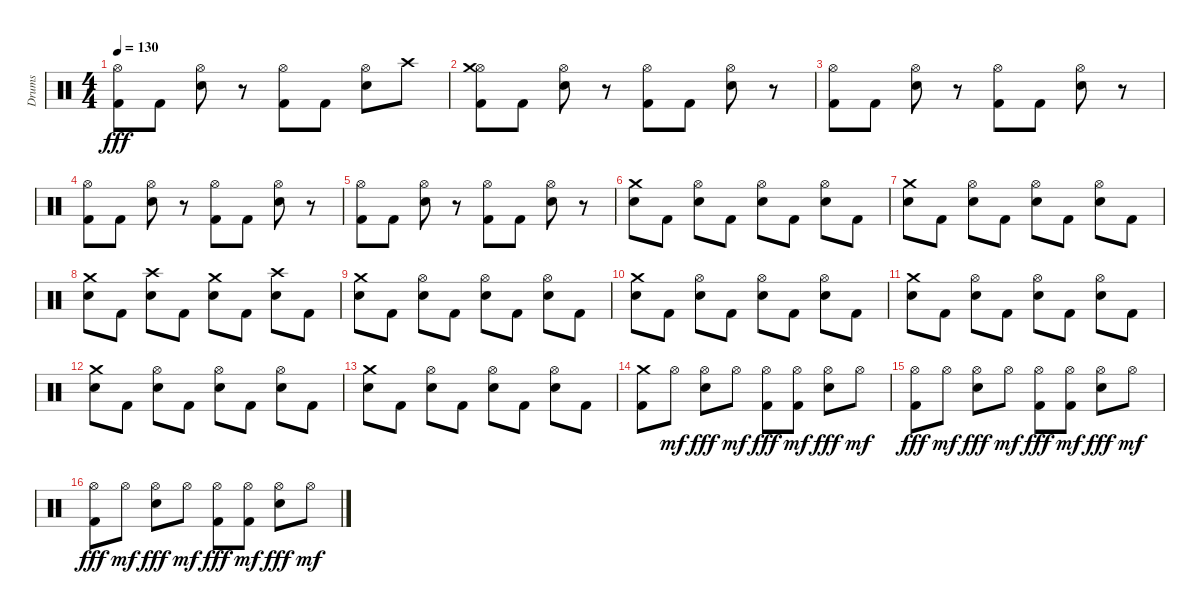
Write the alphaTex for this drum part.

\track ("Drums" "Drums") {instrument percussion}
\staff {score}
\articulation defaults
\ts (4 4)
\tempo 130
\clef neutral
\ks c
("Kick (hit) 2" "Hi-Hat (open)").8{dy fff} "Kick (hit) 2".8 ("Snare (hit) 2" "Hi-Hat (open)").8 r.8 ("Kick (hit) 2" "Hi-Hat (open)").8 "Kick (hit) 2".8 ("Snare (hit) 2" "Hi-Hat (open)").8 "Crash high (hit)".8 |
("Kick (hit) 2" "Hi-Hat (open)" "Crash medium (hit)").8 "Kick (hit) 2".8 ("Snare (hit) 2" "Hi-Hat (open)").8 r.8 ("Kick (hit) 2" "Hi-Hat (open)").8 "Kick (hit) 2".8 ("Snare (hit) 2" "Hi-Hat (open)").8 r.8 |
("Kick (hit) 2" "Hi-Hat (open)").8 "Kick (hit) 2".8 ("Snare (hit) 2" "Hi-Hat (open)").8 r.8 ("Kick (hit) 2" "Hi-Hat (open)").8 "Kick (hit) 2".8 ("Snare (hit) 2" "Hi-Hat (open)").8 r.8 |
("Kick (hit) 2" "Hi-Hat (open)").8 "Kick (hit) 2".8 ("Snare (hit) 2" "Hi-Hat (open)").8 r.8 ("Kick (hit) 2" "Hi-Hat (open)").8 "Kick (hit) 2".8 ("Snare (hit) 2" "Hi-Hat (open)").8 r.8 |
("Kick (hit) 2" "Hi-Hat (open)").8 "Kick (hit) 2".8 ("Snare (hit) 2" "Hi-Hat (open)").8 r.8 ("Kick (hit) 2" "Hi-Hat (open)").8 "Kick (hit) 2".8 ("Snare (hit) 2" "Hi-Hat (open)").8 r.8 |
("Snare (hit) 2" "Crash medium (hit)").8 "Kick (hit) 2".8 ("Snare (hit) 2" "Hi-Hat (open)").8 "Kick (hit) 2".8 ("Snare (hit) 2" "Hi-Hat (open)").8 "Kick (hit) 2".8 ("Snare (hit) 2" "Hi-Hat (open)").8 "Kick (hit) 2".8 |
("Snare (hit) 2" "Crash medium (hit)").8 "Kick (hit) 2".8 ("Snare (hit) 2" "Hi-Hat (open)").8 "Kick (hit) 2".8 ("Snare (hit) 2" "Hi-Hat (open)").8 "Kick (hit) 2".8 ("Snare (hit) 2" "Hi-Hat (open)").8 "Kick (hit) 2".8 |
("Snare (hit) 2" "Crash medium (hit)").8 "Kick (hit) 2".8 ("Snare (hit) 2" "Crash high (hit)").8 "Kick (hit) 2".8 ("Snare (hit) 2" "Crash medium (hit)").8 "Kick (hit) 2".8 ("Snare (hit) 2" "Crash high (hit)").8 "Kick (hit) 2".8 |
("Snare (hit) 2" "Crash medium (hit)").8 "Kick (hit) 2".8 ("Snare (hit) 2" "Hi-Hat (open)").8 "Kick (hit) 2".8 ("Snare (hit) 2" "Hi-Hat (open)").8 "Kick (hit) 2".8 ("Snare (hit) 2" "Hi-Hat (open)").8 "Kick (hit) 2".8 |
("Snare (hit) 2" "Crash medium (hit)").8 "Kick (hit) 2".8 ("Snare (hit) 2" "Hi-Hat (open)").8 "Kick (hit) 2".8 ("Snare (hit) 2" "Hi-Hat (open)").8 "Kick (hit) 2".8 ("Snare (hit) 2" "Hi-Hat (open)").8 "Kick (hit) 2".8 |
("Snare (hit) 2" "Crash medium (hit)").8 "Kick (hit) 2".8 ("Snare (hit) 2" "Hi-Hat (open)").8 "Kick (hit) 2".8 ("Snare (hit) 2" "Hi-Hat (open)").8 "Kick (hit) 2".8 ("Snare (hit) 2" "Hi-Hat (open)").8 "Kick (hit) 2".8 |
("Snare (hit) 2" "Crash medium (hit)").8 "Kick (hit) 2".8 ("Snare (hit) 2" "Hi-Hat (open)").8 "Kick (hit) 2".8 ("Snare (hit) 2" "Hi-Hat (open)").8 "Kick (hit) 2".8 ("Snare (hit) 2" "Hi-Hat (open)").8 "Kick (hit) 2".8 |
("Snare (hit) 2" "Crash medium (hit)").8 "Kick (hit) 2".8 ("Snare (hit) 2" "Hi-Hat (open)").8 "Kick (hit) 2".8 ("Snare (hit) 2" "Hi-Hat (open)").8 "Kick (hit) 2".8 ("Snare (hit) 2" "Hi-Hat (open)").8 "Kick (hit) 2".8 |
("Kick (hit) 2" "Crash medium (hit)").8 "Hi-Hat (open)".8{dy mf} ("Snare (hit) 2" "Hi-Hat (open)").8{dy fff} "Hi-Hat (open)".8{dy mf} ("Kick (hit) 2" "Hi-Hat (open)").8{dy fff} ("Kick (hit) 2" "Hi-Hat (open)").8{dy mf} ("Snare (hit) 2" "Hi-Hat (open)").8{dy fff} "Hi-Hat (open)".8{dy mf} |
("Kick (hit) 2" "Hi-Hat (open)").8{dy fff} "Hi-Hat (open)".8{dy mf} ("Snare (hit) 2" "Hi-Hat (open)").8{dy fff} "Hi-Hat (open)".8{dy mf} ("Kick (hit) 2" "Hi-Hat (open)").8{dy fff} ("Kick (hit) 2" "Hi-Hat (open)").8{dy mf} ("Snare (hit) 2" "Hi-Hat (open)").8{dy fff} "Hi-Hat (open)".8{dy mf} |
("Kick (hit) 2" "Hi-Hat (open)").8{dy fff} "Hi-Hat (open)".8{dy mf} ("Snare (hit) 2" "Hi-Hat (open)").8{dy fff} "Hi-Hat (open)".8{dy mf} ("Kick (hit) 2" "Hi-Hat (open)").8{dy fff} ("Kick (hit) 2" "Hi-Hat (open)").8{dy mf} ("Snare (hit) 2" "Hi-Hat (open)").8{dy fff} "Hi-Hat (open)".8{dy mf}
